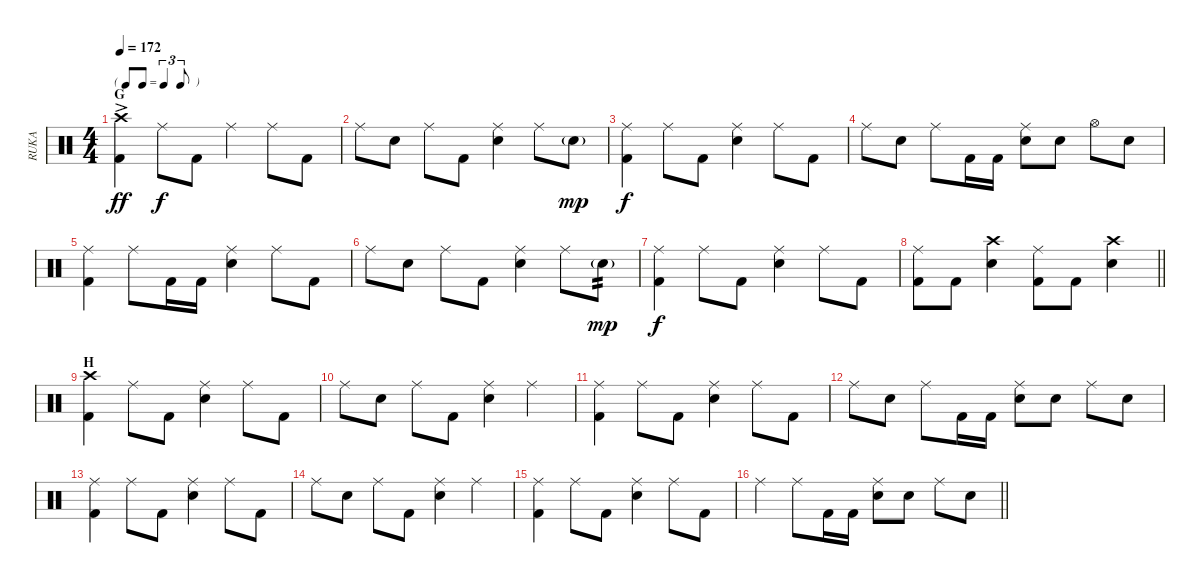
\track ("RUKA" "RUKA") {instrument percussion}
\staff {score}
\articulation defaults
\ts (4 4)
\tf triplet8th
\section ("" "G")
\tempo 172
\clef neutral
\ks c
("Crash high (hit)"{ac} "Kick (hit) 2").4{dy ff} "Ride (middle)".8{dy f} "Kick (hit) 2".8 "Ride (middle)".4 "Ride (middle)".8 "Kick (hit) 2".8 |
"Ride (middle)".8 "Snare (hit) 2".8 "Ride (middle)".8 "Kick (hit) 2".8 ("Ride (middle)" "Snare (hit) 2").4 "Ride (middle)".8 "Snare (hit) 2"{g}.8{dy mp} |
("Ride (middle)" "Kick (hit) 2").4{dy f} "Ride (middle)".8 "Kick (hit) 2".8 ("Ride (middle)" "Snare (hit) 2").4 "Ride (middle)".8 "Kick (hit) 2".8 |
"Ride (middle)".8 "Snare (hit) 2".8 "Ride (middle)".8 "Kick (hit) 2".16 "Kick (hit) 2".16 ("Ride (middle)" "Snare (hit) 2").8 "Snare (hit) 2".8 "Hi-Hat (open)".8 "Snare (hit) 2".8 |
("Ride (middle)" "Kick (hit) 2").4 "Ride (middle)".8 "Kick (hit) 2".16 "Kick (hit) 2".16 ("Ride (middle)" "Snare (hit) 2").4 "Ride (middle)".8 "Kick (hit) 2".8 |
"Ride (middle)".8 "Snare (hit) 2".8 "Ride (middle)".8 "Kick (hit) 2".8 ("Ride (middle)" "Snare (hit) 2").4 "Ride (middle)".8 "Snare (hit) 2"{g}.8{tp 2 dy mp} |
("Ride (middle)" "Kick (hit) 2").4{dy f} "Ride (middle)".8 "Kick (hit) 2".8 ("Ride (middle)" "Snare (hit) 2").4 "Ride (middle)".8 "Kick (hit) 2".8 |
\barLineRight lightlight
("Ride (middle)" "Kick (hit) 2").8 "Kick (hit) 2".8 ("Crash high (hit)" "Snare (hit) 2").4 ("Ride (middle)" "Kick (hit) 2").8 "Kick (hit) 2".8 ("Crash high (hit)" "Snare (hit) 2").4 |
\section ("" "H")
("Crash high (hit)" "Kick (hit) 2").4 "Ride (middle)".8 "Kick (hit) 2".8 ("Ride (middle)" "Snare (hit) 2").4 "Ride (middle)".8 "Kick (hit) 2".8 |
"Ride (middle)".8 "Snare (hit) 2".8 "Ride (middle)".8 "Kick (hit) 2".8 ("Ride (middle)" "Snare (hit) 2").4 "Ride (middle)".4 |
("Ride (middle)" "Kick (hit) 2").4 "Ride (middle)".8 "Kick (hit) 2".8 ("Ride (middle)" "Snare (hit) 2").4 "Ride (middle)".8 "Kick (hit) 2".8 |
"Ride (middle)".8 "Snare (hit) 2".8 "Ride (middle)".8 "Kick (hit) 2".16 "Kick (hit) 2".16 ("Ride (middle)" "Snare (hit) 2").8 "Snare (hit) 2".8 "Ride (middle)".8 "Snare (hit) 2".8 |
("Ride (middle)" "Kick (hit) 2").4 "Ride (middle)".8 "Kick (hit) 2".8 ("Ride (middle)" "Snare (hit) 2").4 "Ride (middle)".8 "Kick (hit) 2".8 |
"Ride (middle)".8 "Snare (hit) 2".8 "Ride (middle)".8 "Kick (hit) 2".8 ("Ride (middle)" "Snare (hit) 2").4 "Ride (middle)".4 |
("Ride (middle)" "Kick (hit) 2").4 "Ride (middle)".8 "Kick (hit) 2".8 ("Ride (middle)" "Snare (hit) 2").4 "Ride (middle)".8 "Kick (hit) 2".8 |
\barLineRight lightlight "Ride (middle)".4 "Ride (middle)".8 "Kick (hit) 2".16 "Kick (hit) 2".16
("Ride (middle)" "Snare (hit) 2").8 "Snare (hit) 2".8 "Ride (middle)".8 "Snare (hit) 2".8
